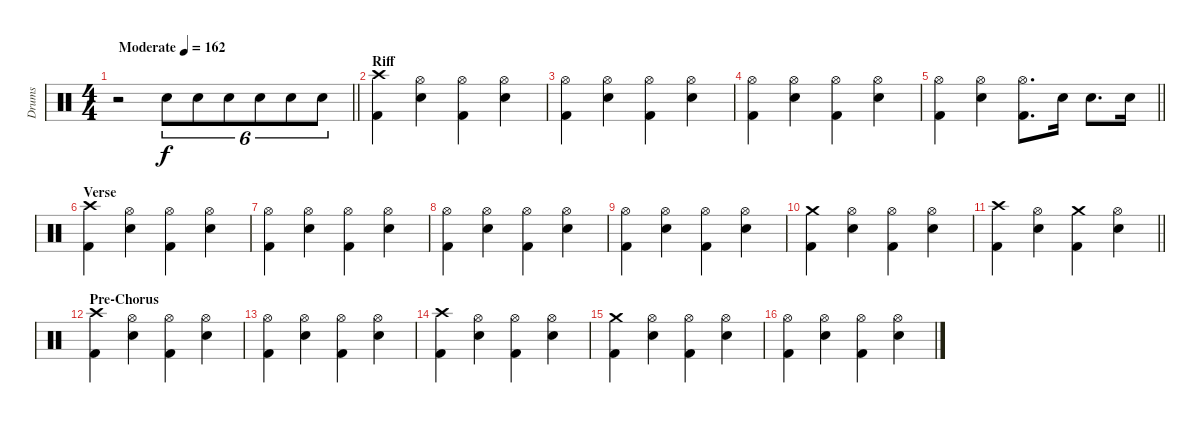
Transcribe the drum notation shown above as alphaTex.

\track ("Drums" "Drums") {instrument percussion}
\staff {score}
\articulation defaults
\ts (4 4)
\tempo (162 "Moderate")
\clef neutral
\barLineRight lightlight
\ks c
r.2{dy f} "Electric Snare (hit)".8{tu (6 4)} "Electric Snare (hit)".8{tu (6 4)} "Electric Snare (hit)".8{tu (6 4)} "Electric Snare (hit)".8{tu (6 4)} "Electric Snare (hit)".8{tu (6 4)} "Electric Snare (hit)".8{tu (6 4)} |
\section ("" "Riff")
("Crash high (hit)" "Kick (hit) 2").4 ("Hi-Hat (open)" "Electric Snare (hit)").4 ("Hi-Hat (open)" "Kick (hit) 2").4 ("Hi-Hat (open)" "Electric Snare (hit)").4 |
("Hi-Hat (open)" "Kick (hit) 2").4 ("Hi-Hat (open)" "Electric Snare (hit)").4 ("Hi-Hat (open)" "Kick (hit) 2").4 ("Hi-Hat (open)" "Electric Snare (hit)").4 |
("Hi-Hat (open)" "Kick (hit) 2").4 ("Hi-Hat (open)" "Electric Snare (hit)").4 ("Hi-Hat (open)" "Kick (hit) 2").4 ("Hi-Hat (open)" "Electric Snare (hit)").4 |
\barLineRight lightlight
("Hi-Hat (open)" "Kick (hit) 2").4 ("Hi-Hat (open)" "Electric Snare (hit)").4 ("Hi-Hat (open)" "Kick (hit) 2").8{d} "Electric Snare (hit)".16 "Electric Snare (hit)".8{d} "Electric Snare (hit)".16 |
\section ("" "Verse")
("Crash high (hit)" "Kick (hit) 2").4 ("Hi-Hat (open)" "Electric Snare (hit)").4 ("Hi-Hat (open)" "Kick (hit) 2").4 ("Hi-Hat (open)" "Electric Snare (hit)").4 |
("Hi-Hat (open)" "Kick (hit) 2").4 ("Hi-Hat (open)" "Electric Snare (hit)").4 ("Hi-Hat (open)" "Kick (hit) 2").4 ("Hi-Hat (open)" "Electric Snare (hit)").4 |
("Hi-Hat (open)" "Kick (hit) 2").4 ("Hi-Hat (open)" "Electric Snare (hit)").4 ("Hi-Hat (open)" "Kick (hit) 2").4 ("Hi-Hat (open)" "Electric Snare (hit)").4 |
("Hi-Hat (open)" "Kick (hit) 2").4 ("Hi-Hat (open)" "Electric Snare (hit)").4 ("Hi-Hat (open)" "Kick (hit) 2").4 ("Hi-Hat (open)" "Electric Snare (hit)").4 |
("Crash medium (hit)" "Kick (hit) 2").4 ("Hi-Hat (open)" "Electric Snare (hit)").4 ("Hi-Hat (open)" "Kick (hit) 2").4 ("Hi-Hat (open)" "Electric Snare (hit)").4 |
\barLineRight lightlight
("Crash high (hit)" "Kick (hit) 2").4 ("Hi-Hat (open)" "Electric Snare (hit)").4 ("Crash medium (hit)" "Kick (hit) 2").4 ("Hi-Hat (open)" "Electric Snare (hit)").4 |
\section ("" "Pre-Chorus")
("Crash high (hit)" "Kick (hit) 2").4 ("Hi-Hat (open)" "Electric Snare (hit)").4 ("Hi-Hat (open)" "Kick (hit) 2").4 ("Hi-Hat (open)" "Electric Snare (hit)").4 |
("Hi-Hat (open)" "Kick (hit) 2").4 ("Hi-Hat (open)" "Electric Snare (hit)").4 ("Hi-Hat (open)" "Kick (hit) 2").4 ("Hi-Hat (open)" "Electric Snare (hit)").4 |
("Crash high (hit)" "Kick (hit) 2").4 ("Hi-Hat (open)" "Electric Snare (hit)").4 ("Hi-Hat (open)" "Kick (hit) 2").4 ("Hi-Hat (open)" "Electric Snare (hit)").4 |
("Crash medium (hit)" "Kick (hit) 2").4 ("Hi-Hat (open)" "Electric Snare (hit)").4 ("Hi-Hat (open)" "Kick (hit) 2").4 ("Hi-Hat (open)" "Electric Snare (hit)").4 |
("Hi-Hat (open)" "Kick (hit) 2").4 ("Hi-Hat (open)" "Electric Snare (hit)").4 ("Hi-Hat (open)" "Kick (hit) 2").4 ("Hi-Hat (open)" "Electric Snare (hit)").4
